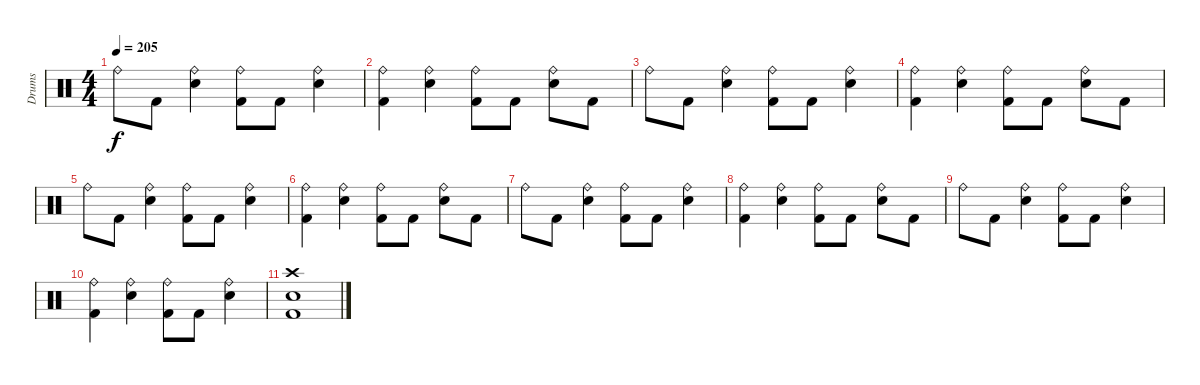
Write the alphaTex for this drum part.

\track ("Drums" "Drums") {instrument percussion}
\staff {score}
\articulation defaults
\ts (4 4)
\tempo 205
\clef neutral
\ks c "Ride (bell)".8{dy f} "Kick (hit) 2".8
("Ride (bell)" "Snare (hit) 2").4 ("Ride (bell)" "Kick (hit) 2").8 "Kick (hit) 2".8 ("Ride (bell)" "Snare (hit) 2").4 |
("Ride (bell)" "Kick (hit) 2").4 ("Ride (bell)" "Snare (hit) 2").4 ("Ride (bell)" "Kick (hit) 2").8 "Kick (hit) 2".8 ("Ride (bell)" "Snare (hit) 2").8 "Kick (hit) 2".8 |
"Ride (bell)".8 "Kick (hit) 2".8 ("Ride (bell)" "Snare (hit) 2").4 ("Ride (bell)" "Kick (hit) 2").8 "Kick (hit) 2".8 ("Ride (bell)" "Snare (hit) 2").4 |
("Ride (bell)" "Kick (hit) 2").4 ("Ride (bell)" "Snare (hit) 2").4 ("Ride (bell)" "Kick (hit) 2").8 "Kick (hit) 2".8 ("Ride (bell)" "Snare (hit) 2").8 "Kick (hit) 2".8 |
"Ride (bell)".8 "Kick (hit) 2".8 ("Ride (bell)" "Snare (hit) 2").4 ("Ride (bell)" "Kick (hit) 2").8 "Kick (hit) 2".8 ("Ride (bell)" "Snare (hit) 2").4 |
("Ride (bell)" "Kick (hit) 2").4 ("Ride (bell)" "Snare (hit) 2").4 ("Ride (bell)" "Kick (hit) 2").8 "Kick (hit) 2".8 ("Ride (bell)" "Snare (hit) 2").8 "Kick (hit) 2".8 |
"Ride (bell)".8 "Kick (hit) 2".8 ("Ride (bell)" "Snare (hit) 2").4 ("Ride (bell)" "Kick (hit) 2").8 "Kick (hit) 2".8 ("Ride (bell)" "Snare (hit) 2").4 |
("Ride (bell)" "Kick (hit) 2").4 ("Ride (bell)" "Snare (hit) 2").4 ("Ride (bell)" "Kick (hit) 2").8 "Kick (hit) 2".8 ("Ride (bell)" "Snare (hit) 2").8 "Kick (hit) 2".8 |
"Ride (bell)".8 "Kick (hit) 2".8 ("Ride (bell)" "Snare (hit) 2").4 ("Ride (bell)" "Kick (hit) 2").8 "Kick (hit) 2".8 ("Ride (bell)" "Snare (hit) 2").4 |
("Ride (bell)" "Kick (hit) 2").4 ("Ride (bell)" "Snare (hit) 2").4 ("Ride (bell)" "Kick (hit) 2").8 "Kick (hit) 2".8 ("Ride (bell)" "Snare (hit) 2").4 |
("Crash high (hit)" "Snare (hit) 2" "Kick (hit) 2").1
